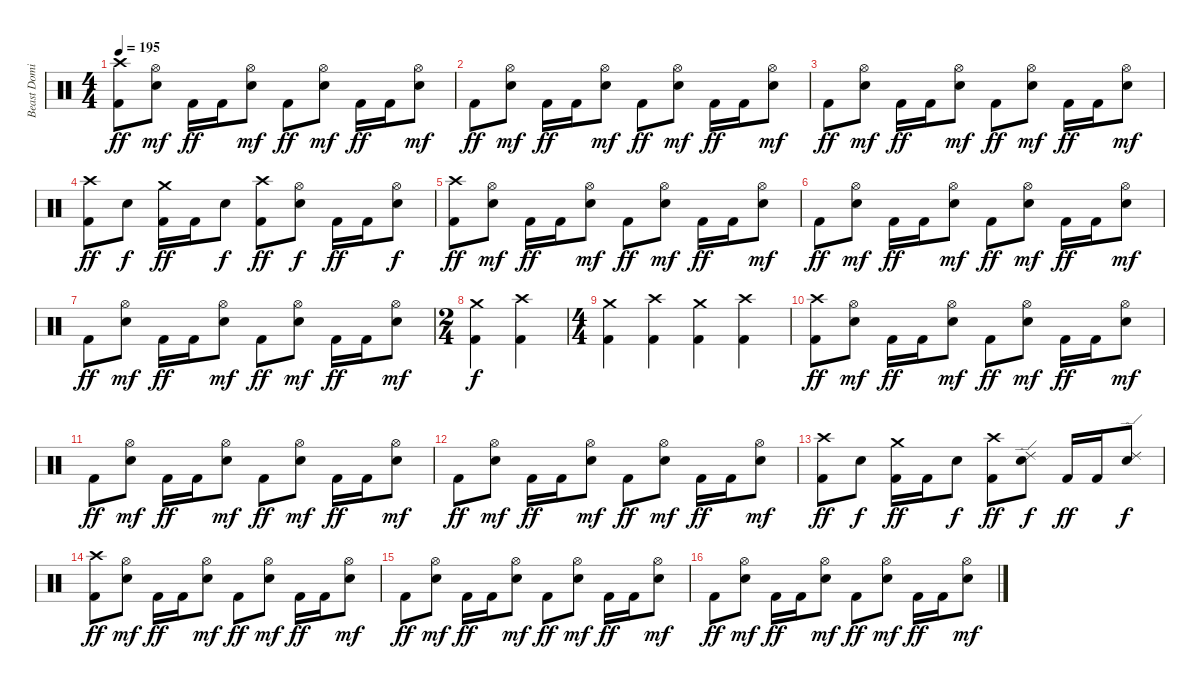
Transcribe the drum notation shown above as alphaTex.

\track ("Beast Dominator" "Beast Domi") {instrument percussion}
\staff {score}
\articulation defaults
\ts (4 4)
\tempo 195
\clef neutral
\ks c
("Crash high (hit)" "Kick (hit) 2").8{dy ff} ("Hi-Hat (open)" "Snare (hit) 2").8{dy mf} "Kick (hit) 2".16{dy ff} "Kick (hit) 2".16 ("Hi-Hat (open)" "Snare (hit) 2").8{dy mf} "Kick (hit) 2".8{dy ff} ("Hi-Hat (open)" "Snare (hit) 2").8{dy mf} "Kick (hit) 2".16{dy ff} "Kick (hit) 2".16 ("Hi-Hat (open)" "Snare (hit) 2").8{dy mf} |
"Kick (hit) 2".8{dy ff} ("Hi-Hat (open)" "Snare (hit) 2").8{dy mf} "Kick (hit) 2".16{dy ff} "Kick (hit) 2".16 ("Hi-Hat (open)" "Snare (hit) 2").8{dy mf} "Kick (hit) 2".8{dy ff} ("Hi-Hat (open)" "Snare (hit) 2").8{dy mf} "Kick (hit) 2".16{dy ff} "Kick (hit) 2".16 ("Hi-Hat (open)" "Snare (hit) 2").8{dy mf} |
"Kick (hit) 2".8{dy ff} ("Hi-Hat (open)" "Snare (hit) 2").8{dy mf} "Kick (hit) 2".16{dy ff} "Kick (hit) 2".16 ("Hi-Hat (open)" "Snare (hit) 2").8{dy mf} "Kick (hit) 2".8{dy ff} ("Hi-Hat (open)" "Snare (hit) 2").8{dy mf} "Kick (hit) 2".16{dy ff} "Kick (hit) 2".16 ("Hi-Hat (open)" "Snare (hit) 2").8{dy mf} |
("Crash high (hit)" "Kick (hit) 2").8{dy ff} "Snare (hit) 2".8{dy f} ("Crash medium (hit)" "Kick (hit) 2").16{dy ff} "Kick (hit) 2".16 "Snare (hit) 2".8{dy f} ("Crash high (hit)" "Kick (hit) 2").8{dy ff} ("Hi-Hat (open)" "Snare (hit) 2").8{dy f} "Kick (hit) 2".16{dy ff} "Kick (hit) 2".16 ("Hi-Hat (open)" "Snare (hit) 2").8{dy f} |
("Crash high (hit)" "Kick (hit) 2").8{dy ff} ("Hi-Hat (open)" "Snare (hit) 2").8{dy mf} "Kick (hit) 2".16{dy ff} "Kick (hit) 2".16 ("Hi-Hat (open)" "Snare (hit) 2").8{dy mf} "Kick (hit) 2".8{dy ff} ("Hi-Hat (open)" "Snare (hit) 2").8{dy mf} "Kick (hit) 2".16{dy ff} "Kick (hit) 2".16 ("Hi-Hat (open)" "Snare (hit) 2").8{dy mf} |
"Kick (hit) 2".8{dy ff} ("Hi-Hat (open)" "Snare (hit) 2").8{dy mf} "Kick (hit) 2".16{dy ff} "Kick (hit) 2".16 ("Hi-Hat (open)" "Snare (hit) 2").8{dy mf} "Kick (hit) 2".8{dy ff} ("Hi-Hat (open)" "Snare (hit) 2").8{dy mf} "Kick (hit) 2".16{dy ff} "Kick (hit) 2".16 ("Hi-Hat (open)" "Snare (hit) 2").8{dy mf} |
"Kick (hit) 2".8{dy ff} ("Hi-Hat (open)" "Snare (hit) 2").8{dy mf} "Kick (hit) 2".16{dy ff} "Kick (hit) 2".16 ("Hi-Hat (open)" "Snare (hit) 2").8{dy mf} "Kick (hit) 2".8{dy ff} ("Hi-Hat (open)" "Snare (hit) 2").8{dy mf} "Kick (hit) 2".16{dy ff} "Kick (hit) 2".16 ("Hi-Hat (open)" "Snare (hit) 2").8{dy mf} |
\ts (2 4)
("Crash medium (hit)" "Kick (hit) 2").4{dy f} ("Crash high (hit)" "Kick (hit) 2").4 |
\ts (4 4)
("Crash medium (hit)" "Kick (hit) 2").4 ("Crash high (hit)" "Kick (hit) 2").4 ("Crash medium (hit)" "Kick (hit) 2").4 ("Crash high (hit)" "Kick (hit) 2").4 |
("Crash high (hit)" "Kick (hit) 2").8{dy ff} ("Hi-Hat (open)" "Snare (hit) 2").8{dy mf} "Kick (hit) 2".16{dy ff} "Kick (hit) 2".16 ("Hi-Hat (open)" "Snare (hit) 2").8{dy mf} "Kick (hit) 2".8{dy ff} ("Hi-Hat (open)" "Snare (hit) 2").8{dy mf} "Kick (hit) 2".16{dy ff} "Kick (hit) 2".16 ("Hi-Hat (open)" "Snare (hit) 2").8{dy mf} |
"Kick (hit) 2".8{dy ff} ("Hi-Hat (open)" "Snare (hit) 2").8{dy mf} "Kick (hit) 2".16{dy ff} "Kick (hit) 2".16 ("Hi-Hat (open)" "Snare (hit) 2").8{dy mf} "Kick (hit) 2".8{dy ff} ("Hi-Hat (open)" "Snare (hit) 2").8{dy mf} "Kick (hit) 2".16{dy ff} "Kick (hit) 2".16 ("Hi-Hat (open)" "Snare (hit) 2").8{dy mf} |
"Kick (hit) 2".8{dy ff} ("Hi-Hat (open)" "Snare (hit) 2").8{dy mf} "Kick (hit) 2".16{dy ff} "Kick (hit) 2".16 ("Hi-Hat (open)" "Snare (hit) 2").8{dy mf} "Kick (hit) 2".8{dy ff} ("Hi-Hat (open)" "Snare (hit) 2").8{dy mf} "Kick (hit) 2".16{dy ff} "Kick (hit) 2".16 ("Hi-Hat (open)" "Snare (hit) 2").8{dy mf} |
("Crash high (hit)" "Kick (hit) 2").8{dy ff} "Snare (hit) 2".8{dy f} ("Crash medium (hit)" "Kick (hit) 2").16{dy ff} "Kick (hit) 2".16 "Snare (hit) 2".8{dy f} ("Crash high (hit)" "Kick (hit) 2").8{dy ff} ("Ride (edge) 2" "Snare (hit) 2").8{dy f} "Kick (hit) 2".16{dy ff} "Kick (hit) 2".16 ("Ride (edge) 2" "Snare (hit) 2").8{dy f} |
("Crash high (hit)" "Kick (hit) 2").8{dy ff} ("Hi-Hat (open)" "Snare (hit) 2").8{dy mf} "Kick (hit) 2".16{dy ff} "Kick (hit) 2".16 ("Hi-Hat (open)" "Snare (hit) 2").8{dy mf} "Kick (hit) 2".8{dy ff} ("Hi-Hat (open)" "Snare (hit) 2").8{dy mf} "Kick (hit) 2".16{dy ff} "Kick (hit) 2".16 ("Hi-Hat (open)" "Snare (hit) 2").8{dy mf} |
"Kick (hit) 2".8{dy ff} ("Hi-Hat (open)" "Snare (hit) 2").8{dy mf} "Kick (hit) 2".16{dy ff} "Kick (hit) 2".16 ("Hi-Hat (open)" "Snare (hit) 2").8{dy mf} "Kick (hit) 2".8{dy ff} ("Hi-Hat (open)" "Snare (hit) 2").8{dy mf} "Kick (hit) 2".16{dy ff} "Kick (hit) 2".16 ("Hi-Hat (open)" "Snare (hit) 2").8{dy mf} |
"Kick (hit) 2".8{dy ff} ("Hi-Hat (open)" "Snare (hit) 2").8{dy mf} "Kick (hit) 2".16{dy ff} "Kick (hit) 2".16 ("Hi-Hat (open)" "Snare (hit) 2").8{dy mf} "Kick (hit) 2".8{dy ff} ("Hi-Hat (open)" "Snare (hit) 2").8{dy mf} "Kick (hit) 2".16{dy ff} "Kick (hit) 2".16 ("Hi-Hat (open)" "Snare (hit) 2").8{dy mf}
